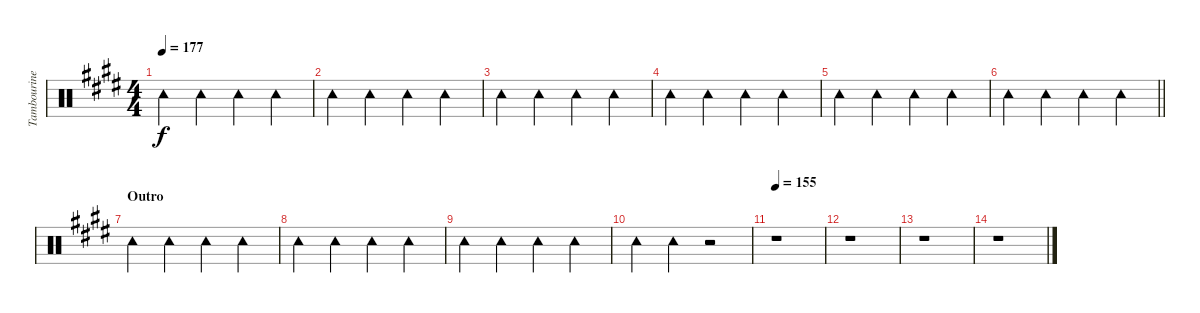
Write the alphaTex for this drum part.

\track ("Tambourine" "Tambourine") {instrument percussion}
\staff {score}
\articulation defaults
\ts (4 4)
\tempo 177
\clef neutral
\ks e "Tambourine (hit)".4{dy f} "Tambourine (hit)".4 "Tambourine (hit)".4 "Tambourine (hit)".4
|
"Tambourine (hit)".4 "Tambourine (hit)".4 "Tambourine (hit)".4 "Tambourine (hit)".4 |
"Tambourine (hit)".4 "Tambourine (hit)".4 "Tambourine (hit)".4 "Tambourine (hit)".4 |
"Tambourine (hit)".4 "Tambourine (hit)".4 "Tambourine (hit)".4 "Tambourine (hit)".4 |
"Tambourine (hit)".4 "Tambourine (hit)".4 "Tambourine (hit)".4 "Tambourine (hit)".4 |
\barLineRight lightlight "Tambourine (hit)".4 "Tambourine (hit)".4 "Tambourine (hit)".4 "Tambourine (hit)".4
|
\section ("" "Outro")
"Tambourine (hit)".4 "Tambourine (hit)".4 "Tambourine (hit)".4 "Tambourine (hit)".4 |
"Tambourine (hit)".4 "Tambourine (hit)".4 "Tambourine (hit)".4 "Tambourine (hit)".4 |
"Tambourine (hit)".4 "Tambourine (hit)".4 "Tambourine (hit)".4 "Tambourine (hit)".4 |
"Tambourine (hit)".4 "Tambourine (hit)".4 r.2 |
\tempo 155
r.1 |
r.1 |
r.1 |
r.1
